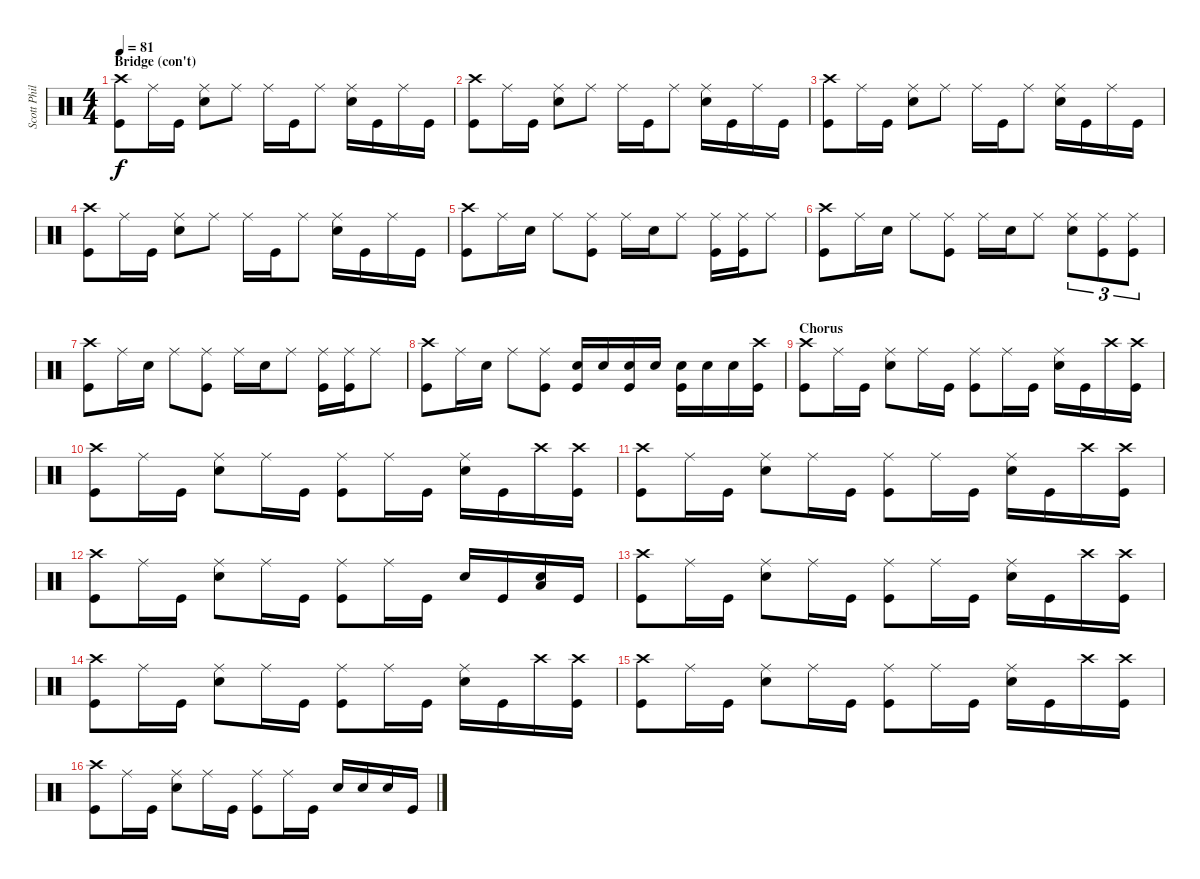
\track ("Scott Phillips" "Scott Phil") {instrument percussion}
\staff {score}
\articulation defaults
\ts (4 4)
\section ("" "Bridge (con't)")
\tempo 81
\clef neutral
\ks c
("Crash high (hit)" "Kick (hit)").8{dy f} "Ride (middle)".16 "Kick (hit)".16 ("Ride (middle)" "Snare (hit) 2").8 "Ride (middle)".8 "Ride (middle)".16 "Kick (hit)".16 "Ride (middle)".8 ("Ride (middle)" "Snare (hit) 2").16 "Kick (hit)".16 "Ride (middle)".16 "Kick (hit)".16 |
("Crash high (hit)" "Kick (hit)").8 "Ride (middle)".16 "Kick (hit)".16 ("Ride (middle)" "Snare (hit) 2").8 "Ride (middle)".8 "Ride (middle)".16 "Kick (hit)".16 "Ride (middle)".8 ("Ride (middle)" "Snare (hit) 2").16 "Kick (hit)".16 "Ride (middle)".16 "Kick (hit)".16 |
("Crash high (hit)" "Kick (hit)").8 "Ride (middle)".16 "Kick (hit)".16 ("Ride (middle)" "Snare (hit) 2").8 "Ride (middle)".8 "Ride (middle)".16 "Kick (hit)".16 "Ride (middle)".8 ("Ride (middle)" "Snare (hit) 2").16 "Kick (hit)".16 "Ride (middle)".16 "Kick (hit)".16 |
("Crash high (hit)" "Kick (hit)").8 "Ride (middle)".16 "Kick (hit)".16 ("Ride (middle)" "Snare (hit) 2").8 "Ride (middle)".8 "Ride (middle)".16 "Kick (hit)".16 "Ride (middle)".8 ("Ride (middle)" "Snare (hit) 2").16 "Kick (hit)".16 "Ride (middle)".16 "Kick (hit)".16 |
("Crash high (hit)" "Kick (hit)").8 "Ride (middle)".16 "Snare (hit) 2".16 "Ride (middle)".8 ("Ride (middle)" "Kick (hit)").8 "Ride (middle)".16 "Snare (hit) 2".16 "Ride (middle)".8 ("Ride (middle)" "Kick (hit)").16 ("Ride (middle)" "Kick (hit)").16 "Ride (middle)".8 |
("Crash high (hit)" "Kick (hit)").8 "Ride (middle)".16 "Snare (hit) 2".16 "Ride (middle)".8 ("Ride (middle)" "Kick (hit)").8 "Ride (middle)".16 "Snare (hit) 2".16 "Ride (middle)".8 ("Ride (middle)" "Snare (hit) 2").8{tu (3 2)} ("Ride (middle)" "Kick (hit)").8{tu (3 2)} ("Ride (middle)" "Kick (hit)").8{tu (3 2)} |
("Crash high (hit)" "Kick (hit)").8 "Ride (middle)".16 "Snare (hit) 2".16 "Ride (middle)".8 ("Ride (middle)" "Kick (hit)").8 "Ride (middle)".16 "Snare (hit) 2".16 "Ride (middle)".8 ("Ride (middle)" "Kick (hit)").16 ("Ride (middle)" "Kick (hit)").16 "Ride (middle)".8 |
("Crash high (hit)" "Kick (hit)").8 "Ride (middle)".16 "Snare (hit) 2".16 "Ride (middle)".8 ("Ride (middle)" "Kick (hit)").8 ("Snare (hit) 2" "Kick (hit)").16 "Snare (hit) 2".16 ("Snare (hit) 2" "Kick (hit)").16 "Snare (hit) 2".16 ("Snare (hit) 2" "Kick (hit)").16 "Snare (hit) 2".16 "Snare (hit) 2".16 ("Crash high (hit)" "Kick (hit)").16 |
\section ("" "Chorus")
("Crash high (hit)" "Kick (hit)").8 "Ride (middle)".16 "Kick (hit)".16 ("Ride (middle)" "Snare (hit) 2").8 "Ride (middle)".16 "Kick (hit)".16 ("Ride (middle)" "Kick (hit)").8 "Ride (middle)".16 "Kick (hit)".16 ("Ride (middle)" "Snare (hit) 2").16 "Kick (hit)".16 "Crash high (hit)".16 ("Crash high (hit)" "Kick (hit)").16 |
("Crash high (hit)" "Kick (hit)").8 "Ride (middle)".16 "Kick (hit)".16 ("Ride (middle)" "Snare (hit) 2").8 "Ride (middle)".16 "Kick (hit)".16 ("Ride (middle)" "Kick (hit)").8 "Ride (middle)".16 "Kick (hit)".16 ("Ride (middle)" "Snare (hit) 2").16 "Kick (hit)".16 "Crash high (hit)".16 ("Crash high (hit)" "Kick (hit)").16 |
("Crash high (hit)" "Kick (hit)").8 "Ride (middle)".16 "Kick (hit)".16 ("Ride (middle)" "Snare (hit) 2").8 "Ride (middle)".16 "Kick (hit)".16 ("Ride (middle)" "Kick (hit)").8 "Ride (middle)".16 "Kick (hit)".16 ("Ride (middle)" "Snare (hit) 2").16 "Kick (hit)".16 "Crash high (hit)".16 ("Crash high (hit)" "Kick (hit)").16 |
("Crash high (hit)" "Kick (hit)").8 "Ride (middle)".16 "Kick (hit)".16 ("Ride (middle)" "Snare (hit) 2").8 "Ride (middle)".16 "Kick (hit)".16 ("Ride (middle)" "Kick (hit)").8 "Ride (middle)".16 "Kick (hit)".16 "Snare (hit) 2".16 "Kick (hit)".16 ("Low Tom (hit)" "Snare (hit) 2").16 "Kick (hit)".16 |
("Crash high (hit)" "Kick (hit)").8 "Ride (middle)".16 "Kick (hit)".16 ("Ride (middle)" "Snare (hit) 2").8 "Ride (middle)".16 "Kick (hit)".16 ("Ride (middle)" "Kick (hit)").8 "Ride (middle)".16 "Kick (hit)".16 ("Ride (middle)" "Snare (hit) 2").16 "Kick (hit)".16 "Crash high (hit)".16 ("Crash high (hit)" "Kick (hit)").16 |
("Crash high (hit)" "Kick (hit)").8 "Ride (middle)".16 "Kick (hit)".16 ("Ride (middle)" "Snare (hit) 2").8 "Ride (middle)".16 "Kick (hit)".16 ("Ride (middle)" "Kick (hit)").8 "Ride (middle)".16 "Kick (hit)".16 ("Ride (middle)" "Snare (hit) 2").16 "Kick (hit)".16 "Crash high (hit)".16 ("Crash high (hit)" "Kick (hit)").16 |
("Crash high (hit)" "Kick (hit)").8 "Ride (middle)".16 "Kick (hit)".16 ("Ride (middle)" "Snare (hit) 2").8 "Ride (middle)".16 "Kick (hit)".16 ("Ride (middle)" "Kick (hit)").8 "Ride (middle)".16 "Kick (hit)".16 ("Ride (middle)" "Snare (hit) 2").16 "Kick (hit)".16 "Crash high (hit)".16 ("Crash high (hit)" "Kick (hit)").16 |
("Crash high (hit)" "Kick (hit)").8 "Ride (middle)".16 "Kick (hit)".16 ("Ride (middle)" "Snare (hit) 2").8 "Ride (middle)".16 "Kick (hit)".16 ("Ride (middle)" "Kick (hit)").8 "Ride (middle)".16 "Kick (hit)".16 "Snare (hit) 2".16 "Snare (hit) 2".16 "Snare (hit) 2".16 "Kick (hit)".16
